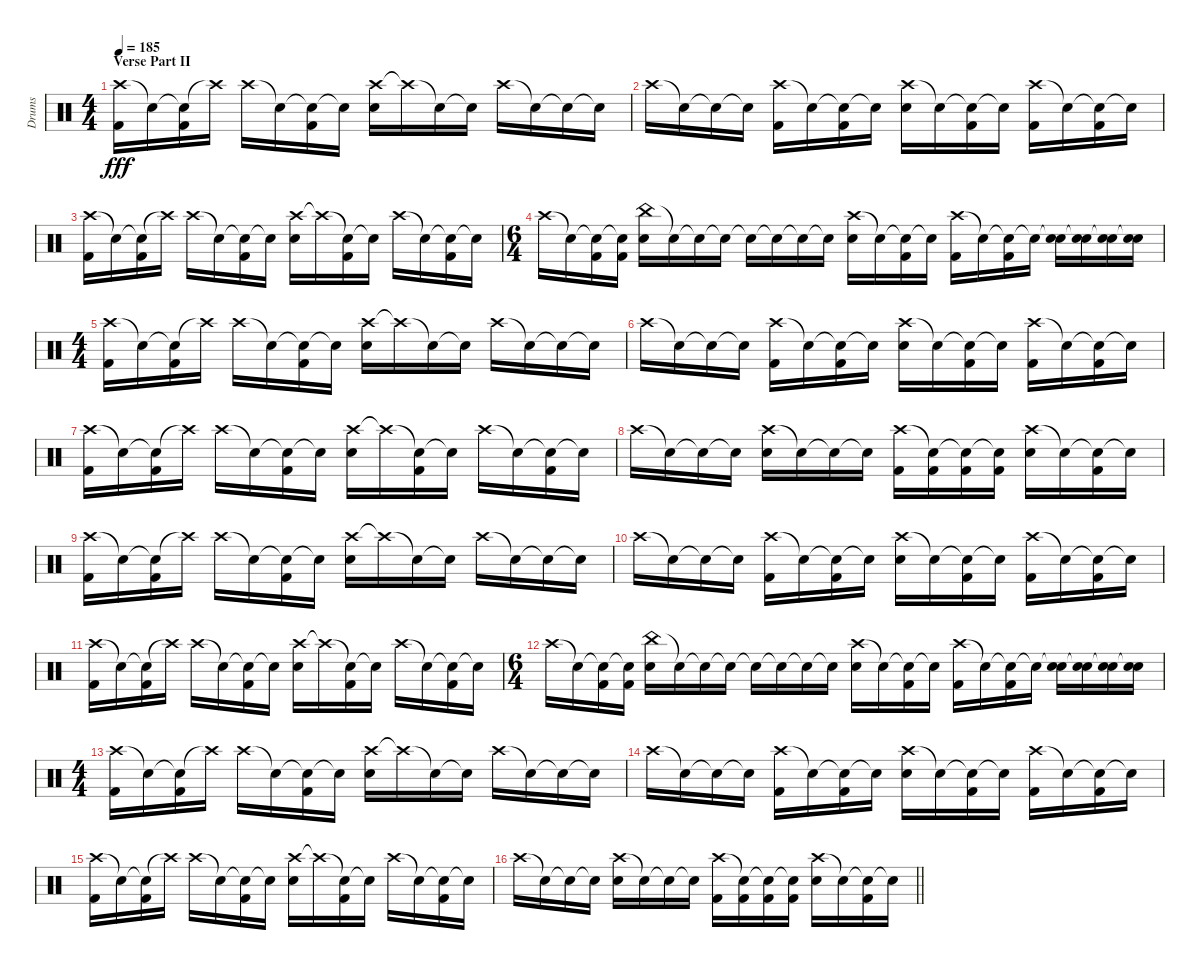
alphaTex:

\track ("Drums" "Drums") {instrument percussion}
\staff {score}
\articulation defaults
\ts (4 4)
\section ("" "Verse Part II")
\tempo 185
\clef neutral
\ks c
("Crash high (hit)" "Kick (hit) 2").16{dy fff} "Snare (hit)"{t}.16 ("Snare (hit)"{t} "Kick (hit) 2").16 "Crash high (hit)"{t}.16 "Crash high (hit)".16 "Snare (hit)"{t}.16 ("Snare (hit)"{t} "Kick (hit) 2").16 "Snare (hit)"{t}.16 ("Crash high (hit)" "Electric Snare (hit)").16 "Crash high (hit)"{t}.16 "Snare (hit)"{t}.16 "Snare (hit)"{t}.16 "Crash high (hit)".16 "Snare (hit)"{t}.16 "Snare (hit)"{t}.16 "Snare (hit)"{t}.16 |
"Crash high (hit)".16 "Snare (hit)"{t}.16 "Snare (hit)"{t}.16 "Snare (hit)"{t}.16 ("Crash high (hit)" "Kick (hit) 2").16 "Snare (hit)"{t}.16 ("Snare (hit)"{t} "Kick (hit) 2").16 "Snare (hit)"{t}.16 ("Crash high (hit)" "Electric Snare (hit)").16 "Snare (hit)"{t}.16 ("Snare (hit)"{t} "Kick (hit) 2").16 "Snare (hit)"{t}.16 ("Crash high (hit)" "Kick (hit) 2").16 "Snare (hit)"{t}.16 ("Snare (hit)"{t} "Kick (hit) 2").16 "Snare (hit)"{t}.16 |
("Crash high (hit)" "Kick (hit) 2").16 "Snare (hit)"{t}.16 ("Snare (hit)"{t} "Kick (hit) 2").16 "Crash high (hit)"{t}.16 "Crash high (hit)".16 "Snare (hit)"{t}.16 ("Snare (hit)"{t} "Kick (hit) 2").16 "Snare (hit)"{t}.16 ("Crash high (hit)" "Electric Snare (hit)").16 "Crash high (hit)"{t}.16 ("Snare (hit)"{t} "Kick (hit) 2").16 "Snare (hit)"{t}.16 "Crash high (hit)".16 "Snare (hit)"{t}.16 ("Snare (hit)"{t} "Kick (hit) 2").16 "Snare (hit)"{t}.16 |
\ts (6 4)
"Crash high (hit)".16 "Snare (hit)"{t}.16 ("Snare (hit)"{t} "Kick (hit) 2").16 ("Snare (hit)"{t} "Kick (hit) 2").16 ("China (hit)" "Electric Snare (hit)").16 "Snare (hit)"{t}.16 "Snare (hit)"{t}.16 "Snare (hit)"{t}.16 "Snare (hit)"{t}.16 "Snare (hit)"{t}.16 "Snare (hit)"{t}.16 "Snare (hit)"{t}.16 ("Crash high (hit)" "Electric Snare (hit)").16 "Snare (hit)"{t}.16 ("Snare (hit)"{t} "Kick (hit) 2").16 "Snare (hit)"{t}.16 ("Crash high (hit)" "Kick (hit) 2").16 "Snare (hit)"{t}.16 ("Snare (hit)"{t} "Kick (hit) 2").16 "Snare (hit)"{t}.16 ("Snare (hit)"{t} "Electric Snare (hit)").16 ("Snare (hit)"{t} "Electric Snare (hit)").16 ("Snare (hit)"{t} "Electric Snare (hit)").16 ("Snare (hit)"{t} "Electric Snare (hit)").16 |
\ts (4 4)
("Crash high (hit)" "Kick (hit) 2").16 "Snare (hit)"{t}.16 ("Snare (hit)"{t} "Kick (hit) 2").16 "Crash high (hit)"{t}.16 "Crash high (hit)".16 "Snare (hit)"{t}.16 ("Snare (hit)"{t} "Kick (hit) 2").16 "Snare (hit)"{t}.16 ("Crash high (hit)" "Electric Snare (hit)").16 "Crash high (hit)"{t}.16 "Snare (hit)"{t}.16 "Snare (hit)"{t}.16 "Crash high (hit)".16 "Snare (hit)"{t}.16 "Snare (hit)"{t}.16 "Snare (hit)"{t}.16 |
"Crash high (hit)".16 "Snare (hit)"{t}.16 "Snare (hit)"{t}.16 "Snare (hit)"{t}.16 ("Crash high (hit)" "Kick (hit) 2").16 "Snare (hit)"{t}.16 ("Snare (hit)"{t} "Kick (hit) 2").16 "Snare (hit)"{t}.16 ("Crash high (hit)" "Electric Snare (hit)").16 "Snare (hit)"{t}.16 ("Snare (hit)"{t} "Kick (hit) 2").16 "Snare (hit)"{t}.16 ("Crash high (hit)" "Kick (hit) 2").16 "Snare (hit)"{t}.16 ("Snare (hit)"{t} "Kick (hit) 2").16 "Snare (hit)"{t}.16 |
("Crash high (hit)" "Kick (hit) 2").16 "Snare (hit)"{t}.16 ("Snare (hit)"{t} "Kick (hit) 2").16 "Crash high (hit)"{t}.16 "Crash high (hit)".16 "Snare (hit)"{t}.16 ("Snare (hit)"{t} "Kick (hit) 2").16 "Snare (hit)"{t}.16 ("Crash high (hit)" "Electric Snare (hit)").16 "Crash high (hit)"{t}.16 ("Snare (hit)"{t} "Kick (hit) 2").16 "Snare (hit)"{t}.16 "Crash high (hit)".16 "Snare (hit)"{t}.16 ("Snare (hit)"{t} "Kick (hit) 2").16 "Snare (hit)"{t}.16 |
"Crash high (hit)".16 "Snare (hit)"{t}.16 "Snare (hit)"{t}.16 "Snare (hit)"{t}.16 ("Crash high (hit)" "Electric Snare (hit)").16 "Snare (hit)"{t}.16 "Snare (hit)"{t}.16 "Snare (hit)"{t}.16 ("Crash high (hit)" "Kick (hit) 2").16 ("Snare (hit)"{t} "Kick (hit) 2").16 ("Snare (hit)"{t} "Kick (hit) 2").16 ("Snare (hit)"{t} "Kick (hit) 2").16 ("Crash high (hit)" "Electric Snare (hit)").16 "Snare (hit)"{t}.16 ("Snare (hit)"{t} "Kick (hit) 2").16 "Snare (hit)"{t}.16 |
("Crash high (hit)" "Kick (hit) 2").16 "Snare (hit)"{t}.16 ("Snare (hit)"{t} "Kick (hit) 2").16 "Crash high (hit)"{t}.16 "Crash high (hit)".16 "Snare (hit)"{t}.16 ("Snare (hit)"{t} "Kick (hit) 2").16 "Snare (hit)"{t}.16 ("Crash high (hit)" "Electric Snare (hit)").16 "Crash high (hit)"{t}.16 "Snare (hit)"{t}.16 "Snare (hit)"{t}.16 "Crash high (hit)".16 "Snare (hit)"{t}.16 "Snare (hit)"{t}.16 "Snare (hit)"{t}.16 |
"Crash high (hit)".16 "Snare (hit)"{t}.16 "Snare (hit)"{t}.16 "Snare (hit)"{t}.16 ("Crash high (hit)" "Kick (hit) 2").16 "Snare (hit)"{t}.16 ("Snare (hit)"{t} "Kick (hit) 2").16 "Snare (hit)"{t}.16 ("Crash high (hit)" "Electric Snare (hit)").16 "Snare (hit)"{t}.16 ("Snare (hit)"{t} "Kick (hit) 2").16 "Snare (hit)"{t}.16 ("Crash high (hit)" "Kick (hit) 2").16 "Snare (hit)"{t}.16 ("Snare (hit)"{t} "Kick (hit) 2").16 "Snare (hit)"{t}.16 |
("Crash high (hit)" "Kick (hit) 2").16 "Snare (hit)"{t}.16 ("Snare (hit)"{t} "Kick (hit) 2").16 "Crash high (hit)"{t}.16 "Crash high (hit)".16 "Snare (hit)"{t}.16 ("Snare (hit)"{t} "Kick (hit) 2").16 "Snare (hit)"{t}.16 ("Crash high (hit)" "Electric Snare (hit)").16 "Crash high (hit)"{t}.16 ("Snare (hit)"{t} "Kick (hit) 2").16 "Snare (hit)"{t}.16 "Crash high (hit)".16 "Snare (hit)"{t}.16 ("Snare (hit)"{t} "Kick (hit) 2").16 "Snare (hit)"{t}.16 |
\ts (6 4)
"Crash high (hit)".16 "Snare (hit)"{t}.16 ("Snare (hit)"{t} "Kick (hit) 2").16 ("Snare (hit)"{t} "Kick (hit) 2").16 ("China (hit)" "Electric Snare (hit)").16 "Snare (hit)"{t}.16 "Snare (hit)"{t}.16 "Snare (hit)"{t}.16 "Snare (hit)"{t}.16 "Snare (hit)"{t}.16 "Snare (hit)"{t}.16 "Snare (hit)"{t}.16 ("Crash high (hit)" "Electric Snare (hit)").16 "Snare (hit)"{t}.16 ("Snare (hit)"{t} "Kick (hit) 2").16 "Snare (hit)"{t}.16 ("Crash high (hit)" "Kick (hit) 2").16 "Snare (hit)"{t}.16 ("Snare (hit)"{t} "Kick (hit) 2").16 "Snare (hit)"{t}.16 ("Snare (hit)"{t} "Electric Snare (hit)").16 ("Snare (hit)"{t} "Electric Snare (hit)").16 ("Snare (hit)"{t} "Electric Snare (hit)").16 ("Snare (hit)"{t} "Electric Snare (hit)").16 |
\ts (4 4)
("Crash high (hit)" "Kick (hit) 2").16 "Snare (hit)"{t}.16 ("Snare (hit)"{t} "Kick (hit) 2").16 "Crash high (hit)"{t}.16 "Crash high (hit)".16 "Snare (hit)"{t}.16 ("Snare (hit)"{t} "Kick (hit) 2").16 "Snare (hit)"{t}.16 ("Crash high (hit)" "Electric Snare (hit)").16 "Crash high (hit)"{t}.16 "Snare (hit)"{t}.16 "Snare (hit)"{t}.16 "Crash high (hit)".16 "Snare (hit)"{t}.16 "Snare (hit)"{t}.16 "Snare (hit)"{t}.16 |
"Crash high (hit)".16 "Snare (hit)"{t}.16 "Snare (hit)"{t}.16 "Snare (hit)"{t}.16 ("Crash high (hit)" "Kick (hit) 2").16 "Snare (hit)"{t}.16 ("Snare (hit)"{t} "Kick (hit) 2").16 "Snare (hit)"{t}.16 ("Crash high (hit)" "Electric Snare (hit)").16 "Snare (hit)"{t}.16 ("Snare (hit)"{t} "Kick (hit) 2").16 "Snare (hit)"{t}.16 ("Crash high (hit)" "Kick (hit) 2").16 "Snare (hit)"{t}.16 ("Snare (hit)"{t} "Kick (hit) 2").16 "Snare (hit)"{t}.16 |
("Crash high (hit)" "Kick (hit) 2").16 "Snare (hit)"{t}.16 ("Snare (hit)"{t} "Kick (hit) 2").16 "Crash high (hit)"{t}.16 "Crash high (hit)".16 "Snare (hit)"{t}.16 ("Snare (hit)"{t} "Kick (hit) 2").16 "Snare (hit)"{t}.16 ("Crash high (hit)" "Electric Snare (hit)").16 "Crash high (hit)"{t}.16 ("Snare (hit)"{t} "Kick (hit) 2").16 "Snare (hit)"{t}.16 "Crash high (hit)".16 "Snare (hit)"{t}.16 ("Snare (hit)"{t} "Kick (hit) 2").16 "Snare (hit)"{t}.16 |
\barLineRight lightlight "Crash high (hit)".16 "Snare (hit)"{t}.16 "Snare (hit)"{t}.16 "Snare (hit)"{t}.16
("Crash high (hit)" "Electric Snare (hit)").16 "Snare (hit)"{t}.16 "Snare (hit)"{t}.16 "Snare (hit)"{t}.16 ("Crash high (hit)" "Kick (hit) 2").16 ("Snare (hit)"{t} "Kick (hit) 2").16 ("Snare (hit)"{t} "Kick (hit) 2").16 ("Snare (hit)"{t} "Kick (hit) 2").16 ("Crash high (hit)" "Electric Snare (hit)").16 "Snare (hit)"{t}.16 ("Snare (hit)"{t} "Kick (hit) 2").16 "Snare (hit)"{t}.16
